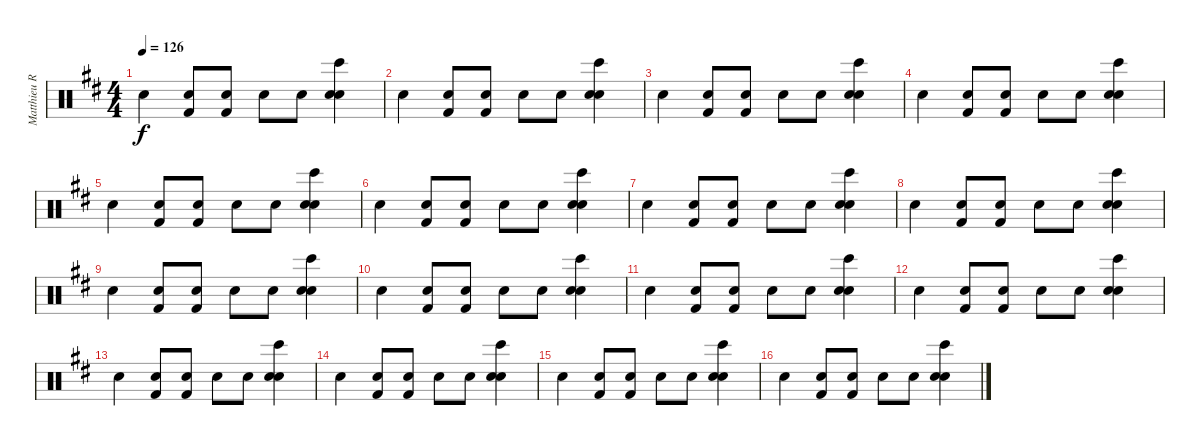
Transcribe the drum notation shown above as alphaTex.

\track ("Matthieu Rabatté (batterie)" "Matthieu R") {instrument percussion}
\staff {score}
\articulation defaults
\ts (4 4)
\tempo 126
\clef neutral
\ks d "Snare (hit) 2".4{dy f}
("Kick (hit) 2" "Electric Snare (hit)").8 ("Kick (hit) 2" "Electric Snare (hit)").8 "Snare (hit) 2".8 "Snare (hit) 2".8 ("Bongo High (hit)" "Electric Snare (hit)" "Hand Clap (hit)").4 |
"Snare (hit) 2".4 ("Kick (hit) 2" "Electric Snare (hit)").8 ("Kick (hit) 2" "Electric Snare (hit)").8 "Snare (hit) 2".8 "Snare (hit) 2".8 ("Bongo High (hit)" "Electric Snare (hit)" "Hand Clap (hit)").4 |
"Snare (hit) 2".4 ("Kick (hit) 2" "Electric Snare (hit)").8 ("Kick (hit) 2" "Electric Snare (hit)").8 "Snare (hit) 2".8 "Snare (hit) 2".8 ("Bongo High (hit)" "Electric Snare (hit)" "Hand Clap (hit)").4 |
"Snare (hit) 2".4 ("Kick (hit) 2" "Electric Snare (hit)").8 ("Kick (hit) 2" "Electric Snare (hit)").8 "Snare (hit) 2".8 "Snare (hit) 2".8 ("Bongo High (hit)" "Electric Snare (hit)" "Hand Clap (hit)").4 |
"Snare (hit) 2".4 ("Kick (hit) 2" "Electric Snare (hit)").8 ("Kick (hit) 2" "Electric Snare (hit)").8 "Snare (hit) 2".8 "Snare (hit) 2".8 ("Bongo High (hit)" "Electric Snare (hit)" "Hand Clap (hit)").4 |
"Snare (hit) 2".4 ("Kick (hit) 2" "Electric Snare (hit)").8 ("Kick (hit) 2" "Electric Snare (hit)").8 "Snare (hit) 2".8 "Snare (hit) 2".8 ("Bongo High (hit)" "Electric Snare (hit)" "Hand Clap (hit)").4 |
"Snare (hit) 2".4 ("Kick (hit) 2" "Electric Snare (hit)").8 ("Kick (hit) 2" "Electric Snare (hit)").8 "Snare (hit) 2".8 "Snare (hit) 2".8 ("Bongo High (hit)" "Electric Snare (hit)" "Hand Clap (hit)").4 |
"Snare (hit) 2".4 ("Kick (hit) 2" "Electric Snare (hit)").8 ("Kick (hit) 2" "Electric Snare (hit)").8 "Snare (hit) 2".8 "Snare (hit) 2".8 ("Bongo High (hit)" "Electric Snare (hit)" "Hand Clap (hit)").4 |
"Snare (hit) 2".4 ("Kick (hit) 2" "Electric Snare (hit)").8 ("Kick (hit) 2" "Electric Snare (hit)").8 "Snare (hit) 2".8 "Snare (hit) 2".8 ("Bongo High (hit)" "Electric Snare (hit)" "Hand Clap (hit)").4 |
"Snare (hit) 2".4 ("Kick (hit) 2" "Electric Snare (hit)").8 ("Kick (hit) 2" "Electric Snare (hit)").8 "Snare (hit) 2".8 "Snare (hit) 2".8 ("Bongo High (hit)" "Electric Snare (hit)" "Hand Clap (hit)").4 |
"Snare (hit) 2".4 ("Kick (hit) 2" "Electric Snare (hit)").8 ("Kick (hit) 2" "Electric Snare (hit)").8 "Snare (hit) 2".8 "Snare (hit) 2".8 ("Bongo High (hit)" "Electric Snare (hit)" "Hand Clap (hit)").4 |
"Snare (hit) 2".4 ("Kick (hit) 2" "Electric Snare (hit)").8 ("Kick (hit) 2" "Electric Snare (hit)").8 "Snare (hit) 2".8 "Snare (hit) 2".8 ("Bongo High (hit)" "Electric Snare (hit)" "Hand Clap (hit)").4 |
"Snare (hit) 2".4 ("Kick (hit) 2" "Electric Snare (hit)").8 ("Kick (hit) 2" "Electric Snare (hit)").8 "Snare (hit) 2".8 "Snare (hit) 2".8 ("Bongo High (hit)" "Electric Snare (hit)" "Hand Clap (hit)").4 |
"Snare (hit) 2".4 ("Kick (hit) 2" "Electric Snare (hit)").8 ("Kick (hit) 2" "Electric Snare (hit)").8 "Snare (hit) 2".8 "Snare (hit) 2".8 ("Bongo High (hit)" "Electric Snare (hit)" "Hand Clap (hit)").4 |
"Snare (hit) 2".4 ("Kick (hit) 2" "Electric Snare (hit)").8 ("Kick (hit) 2" "Electric Snare (hit)").8 "Snare (hit) 2".8 "Snare (hit) 2".8 ("Bongo High (hit)" "Electric Snare (hit)" "Hand Clap (hit)").4 |
"Snare (hit) 2".4 ("Kick (hit) 2" "Electric Snare (hit)").8 ("Kick (hit) 2" "Electric Snare (hit)").8 "Snare (hit) 2".8 "Snare (hit) 2".8 ("Bongo High (hit)" "Electric Snare (hit)" "Hand Clap (hit)").4
